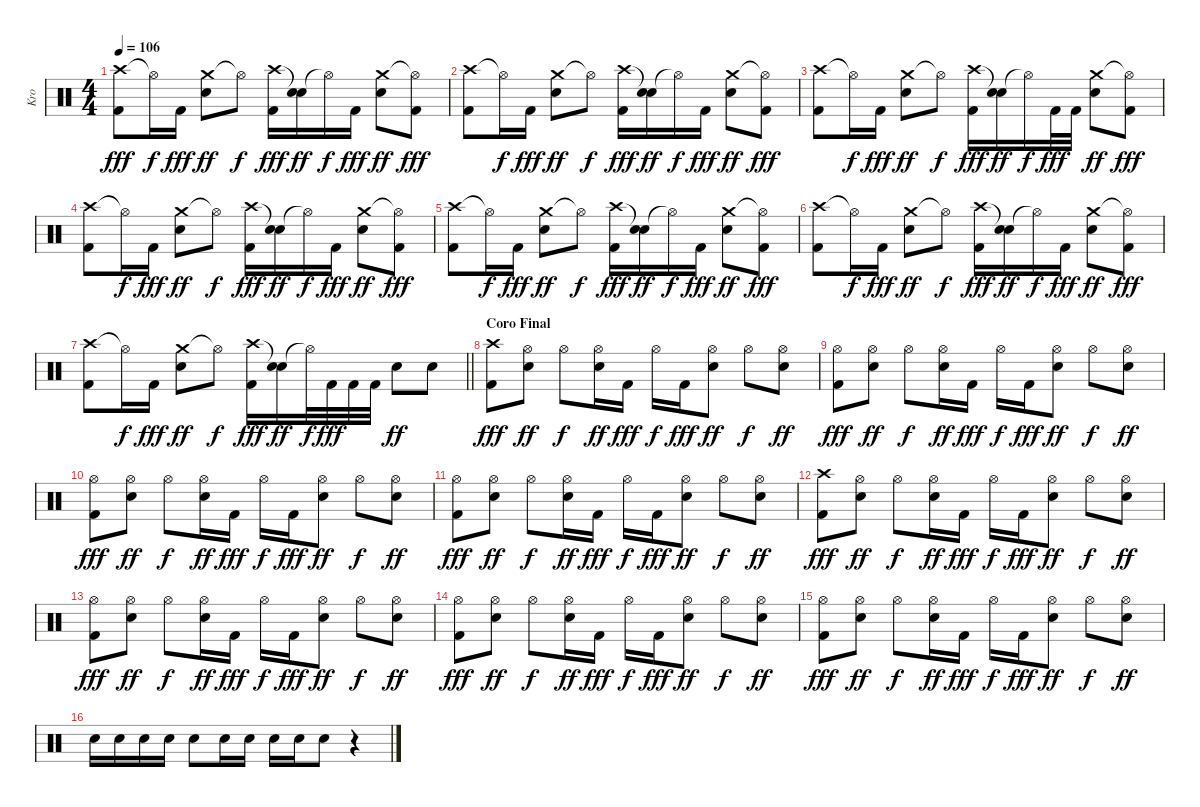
\track ("Kro" "Kro") {instrument percussion}
\staff {score}
\articulation defaults
\ts (4 4)
\tempo 106
\clef neutral
\ks c
("Crash high (hit)" "Kick (hit) 2").8{dy fff} "Hi-Hat (open)"{t}.16{dy f} "Kick (hit) 2".16{dy fff} ("Crash medium (hit)" "Electric Snare (hit)").8{dy ff} "Hi-Hat (open)"{t}.8{dy f} ("Crash high (hit)" "Kick (hit) 2").16{dy fff} ("Snare (hit)"{t} "Electric Snare (hit)").16{dy ff} "Hi-Hat (open)"{t}.16{dy f} "Kick (hit) 2".16{dy fff} ("Crash medium (hit)" "Electric Snare (hit)").8{dy ff} ("Hi-Hat (open)"{t} "Kick (hit) 2").8{dy fff} |
("Crash high (hit)" "Kick (hit) 2").8 "Hi-Hat (open)"{t}.16{dy f} "Kick (hit) 2".16{dy fff} ("Crash medium (hit)" "Electric Snare (hit)").8{dy ff} "Hi-Hat (open)"{t}.8{dy f} ("Crash high (hit)" "Kick (hit) 2").16{dy fff} ("Snare (hit)"{t} "Electric Snare (hit)").16{dy ff} "Hi-Hat (open)"{t}.16{dy f} "Kick (hit) 2".16{dy fff} ("Crash medium (hit)" "Electric Snare (hit)").8{dy ff} ("Hi-Hat (open)"{t} "Kick (hit) 2").8{dy fff} |
("Crash high (hit)" "Kick (hit) 2").8 "Hi-Hat (open)"{t}.16{dy f} "Kick (hit) 2".16{dy fff} ("Crash medium (hit)" "Electric Snare (hit)").8{dy ff} "Hi-Hat (open)"{t}.8{dy f} ("Crash high (hit)" "Kick (hit) 2").16{dy fff} ("Snare (hit)"{t} "Electric Snare (hit)").16{dy ff} "Hi-Hat (open)"{t}.16{dy f} "Kick (hit) 2".32{dy fff} "Kick (hit) 2".32 ("Crash medium (hit)" "Electric Snare (hit)").8{dy ff} ("Hi-Hat (open)"{t} "Kick (hit) 2").8{dy fff} |
("Crash high (hit)" "Kick (hit) 2").8 "Hi-Hat (open)"{t}.16{dy f} "Kick (hit) 2".16{dy fff} ("Crash medium (hit)" "Electric Snare (hit)").8{dy ff} "Hi-Hat (open)"{t}.8{dy f} ("Crash high (hit)" "Kick (hit) 2").16{dy fff} ("Snare (hit)"{t} "Electric Snare (hit)").16{dy ff} "Hi-Hat (open)"{t}.16{dy f} "Kick (hit) 2".16{dy fff} ("Crash medium (hit)" "Electric Snare (hit)").8{dy ff} ("Hi-Hat (open)"{t} "Kick (hit) 2").8{dy fff} |
("Crash high (hit)" "Kick (hit) 2").8 "Hi-Hat (open)"{t}.16{dy f} "Kick (hit) 2".16{dy fff} ("Crash medium (hit)" "Electric Snare (hit)").8{dy ff} "Hi-Hat (open)"{t}.8{dy f} ("Crash high (hit)" "Kick (hit) 2").16{dy fff} ("Snare (hit)"{t} "Electric Snare (hit)").16{dy ff} "Hi-Hat (open)"{t}.16{dy f} "Kick (hit) 2".16{dy fff} ("Crash medium (hit)" "Electric Snare (hit)").8{dy ff} ("Hi-Hat (open)"{t} "Kick (hit) 2").8{dy fff} |
("Crash high (hit)" "Kick (hit) 2").8 "Hi-Hat (open)"{t}.16{dy f} "Kick (hit) 2".16{dy fff} ("Crash medium (hit)" "Electric Snare (hit)").8{dy ff} "Hi-Hat (open)"{t}.8{dy f} ("Crash high (hit)" "Kick (hit) 2").16{dy fff} ("Snare (hit)"{t} "Electric Snare (hit)").16{dy ff} "Hi-Hat (open)"{t}.16{dy f} "Kick (hit) 2".16{dy fff} ("Crash medium (hit)" "Electric Snare (hit)").8{dy ff} ("Hi-Hat (open)"{t} "Kick (hit) 2").8{dy fff} |
\barLineRight lightlight
("Crash high (hit)" "Kick (hit) 2").8 "Hi-Hat (open)"{t}.16{dy f} "Kick (hit) 2".16{dy fff} ("Crash medium (hit)" "Electric Snare (hit)").8{dy ff} "Hi-Hat (open)"{t}.8{dy f} ("Crash high (hit)" "Kick (hit) 2").16{dy fff} ("Snare (hit)"{t} "Electric Snare (hit)").16{dy ff} "Hi-Hat (open)"{t}.32{dy f} "Kick (hit) 2".32{dy fff} "Kick (hit) 2".32 "Kick (hit) 2".32 "Electric Snare (hit)".8{dy ff} "Electric Snare (hit)".8 |
\section ("" "Coro Final")
("Crash high (hit)" "Kick (hit) 2").8{dy fff} ("Hi-Hat (open)" "Electric Snare (hit)").8{dy ff} "Hi-Hat (open)".8{dy f} ("Hi-Hat (open)" "Electric Snare (hit)").16{dy ff} "Kick (hit) 2".16{dy fff} "Hi-Hat (open)".16{dy f} "Kick (hit) 2".16{dy fff} ("Hi-Hat (open)" "Electric Snare (hit)").8{dy ff} "Hi-Hat (open)".8{dy f} ("Hi-Hat (open)" "Electric Snare (hit)").8{dy ff} |
("Hi-Hat (open)" "Kick (hit) 2").8{dy fff} ("Hi-Hat (open)" "Electric Snare (hit)").8{dy ff} "Hi-Hat (open)".8{dy f} ("Hi-Hat (open)" "Electric Snare (hit)").16{dy ff} "Kick (hit) 2".16{dy fff} "Hi-Hat (open)".16{dy f} "Kick (hit) 2".16{dy fff} ("Hi-Hat (open)" "Electric Snare (hit)").8{dy ff} "Hi-Hat (open)".8{dy f} ("Hi-Hat (open)" "Electric Snare (hit)").8{dy ff} |
("Hi-Hat (open)" "Kick (hit) 2").8{dy fff} ("Hi-Hat (open)" "Electric Snare (hit)").8{dy ff} "Hi-Hat (open)".8{dy f} ("Hi-Hat (open)" "Electric Snare (hit)").16{dy ff} "Kick (hit) 2".16{dy fff} "Hi-Hat (open)".16{dy f} "Kick (hit) 2".16{dy fff} ("Hi-Hat (open)" "Electric Snare (hit)").8{dy ff} "Hi-Hat (open)".8{dy f} ("Hi-Hat (open)" "Electric Snare (hit)").8{dy ff} |
("Hi-Hat (open)" "Kick (hit) 2").8{dy fff} ("Hi-Hat (open)" "Electric Snare (hit)").8{dy ff} "Hi-Hat (open)".8{dy f} ("Hi-Hat (open)" "Electric Snare (hit)").16{dy ff} "Kick (hit) 2".16{dy fff} "Hi-Hat (open)".16{dy f} "Kick (hit) 2".16{dy fff} ("Hi-Hat (open)" "Electric Snare (hit)").8{dy ff} "Hi-Hat (open)".8{dy f} ("Hi-Hat (open)" "Electric Snare (hit)").8{dy ff} |
("Crash high (hit)" "Kick (hit) 2").8{dy fff} ("Hi-Hat (open)" "Electric Snare (hit)").8{dy ff} "Hi-Hat (open)".8{dy f} ("Hi-Hat (open)" "Electric Snare (hit)").16{dy ff} "Kick (hit) 2".16{dy fff} "Hi-Hat (open)".16{dy f} "Kick (hit) 2".16{dy fff} ("Hi-Hat (open)" "Electric Snare (hit)").8{dy ff} "Hi-Hat (open)".8{dy f} ("Hi-Hat (open)" "Electric Snare (hit)").8{dy ff} |
("Hi-Hat (open)" "Kick (hit) 2").8{dy fff} ("Hi-Hat (open)" "Electric Snare (hit)").8{dy ff} "Hi-Hat (open)".8{dy f} ("Hi-Hat (open)" "Electric Snare (hit)").16{dy ff} "Kick (hit) 2".16{dy fff} "Hi-Hat (open)".16{dy f} "Kick (hit) 2".16{dy fff} ("Hi-Hat (open)" "Electric Snare (hit)").8{dy ff} "Hi-Hat (open)".8{dy f} ("Hi-Hat (open)" "Electric Snare (hit)").8{dy ff} |
("Hi-Hat (open)" "Kick (hit) 2").8{dy fff} ("Hi-Hat (open)" "Electric Snare (hit)").8{dy ff} "Hi-Hat (open)".8{dy f} ("Hi-Hat (open)" "Electric Snare (hit)").16{dy ff} "Kick (hit) 2".16{dy fff} "Hi-Hat (open)".16{dy f} "Kick (hit) 2".16{dy fff} ("Hi-Hat (open)" "Electric Snare (hit)").8{dy ff} "Hi-Hat (open)".8{dy f} ("Hi-Hat (open)" "Electric Snare (hit)").8{dy ff} |
("Hi-Hat (open)" "Kick (hit) 2").8{dy fff} ("Hi-Hat (open)" "Electric Snare (hit)").8{dy ff} "Hi-Hat (open)".8{dy f} ("Hi-Hat (open)" "Electric Snare (hit)").16{dy ff} "Kick (hit) 2".16{dy fff} "Hi-Hat (open)".16{dy f} "Kick (hit) 2".16{dy fff} ("Hi-Hat (open)" "Electric Snare (hit)").8{dy ff} "Hi-Hat (open)".8{dy f} ("Hi-Hat (open)" "Electric Snare (hit)").8{dy ff} |
"Electric Snare (hit)".16 "Electric Snare (hit)".16 "Electric Snare (hit)".16 "Electric Snare (hit)".16 "Electric Snare (hit)".8 "Electric Snare (hit)".16 "Electric Snare (hit)".16 "Electric Snare (hit)".16 "Electric Snare (hit)".16 "Electric Snare (hit)".8 r.4
